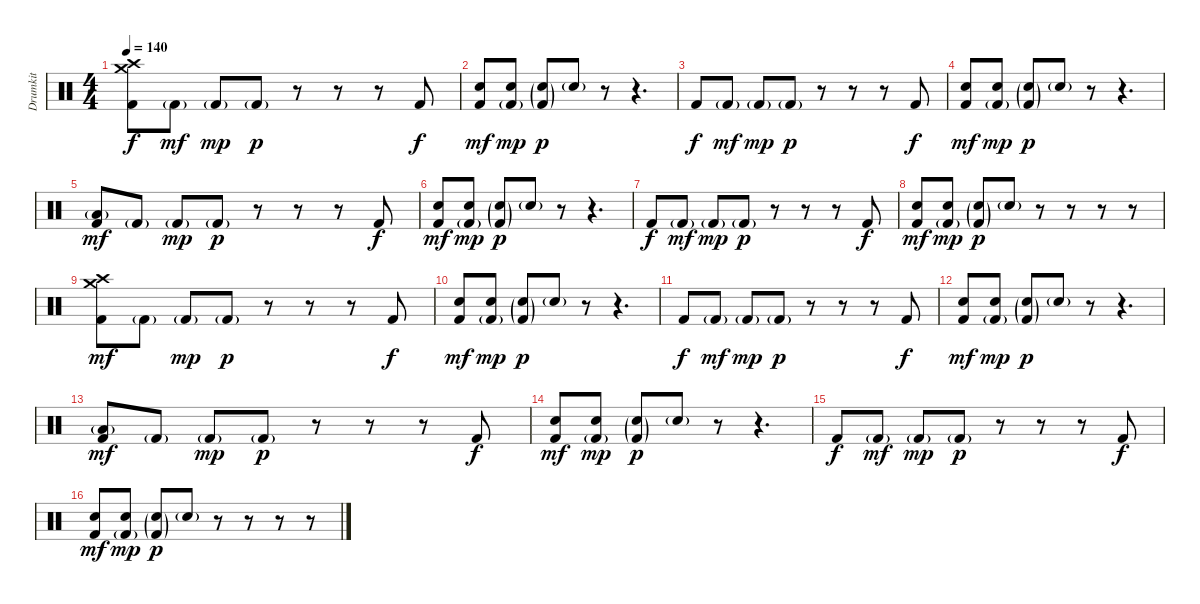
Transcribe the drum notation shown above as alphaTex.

\track ("Drumkit" "Drumkit") {instrument percussion}
\staff {score}
\articulation defaults
\ts (4 4)
\tempo 140
\clef neutral
\ks c
("Crash high (hit)" "Crash medium (hit)" "Kick (hit) 2").8{dy f} "Kick (hit) 2"{g}.8{dy mf} "Kick (hit) 2"{g}.8{dy mp} "Kick (hit) 2"{g}.8{dy p} r.8 r.8 r.8 "Kick (hit) 2".8{dy f} |
("Electric Snare (hit)" "Kick (hit) 2").8{dy mf} ("Electric Snare (hit)" "Kick (hit) 2"{g}).8{dy mp} ("Electric Snare (hit)"{g} "Kick (hit) 2"{g}).8{dy p} "Electric Snare (hit)"{g}.8 r.8 r.4{d} |
"Kick (hit) 2".8{dy f} "Kick (hit) 2"{g}.8{dy mf} "Kick (hit) 2"{g}.8{dy mp} "Kick (hit) 2"{g}.8{dy p} r.8 r.8 r.8 "Kick (hit) 2".8{dy f} |
("Electric Snare (hit)" "Kick (hit) 2").8{dy mf} ("Electric Snare (hit)" "Kick (hit) 2"{g}).8{dy mp} ("Electric Snare (hit)"{g} "Kick (hit) 2"{g}).8{dy p} "Electric Snare (hit)"{g}.8 r.8 r.4{d} |
("Low Floor Tom (hit)"{g} "Kick (hit) 2").8{dy mf} "Kick (hit) 2"{g}.8 "Kick (hit) 2"{g}.8{dy mp} "Kick (hit) 2"{g}.8{dy p} r.8 r.8 r.8 "Kick (hit) 2".8{dy f} |
("Electric Snare (hit)" "Kick (hit) 2").8{dy mf} ("Electric Snare (hit)" "Kick (hit) 2"{g}).8{dy mp} ("Electric Snare (hit)"{g} "Kick (hit) 2"{g}).8{dy p} "Electric Snare (hit)"{g}.8 r.8 r.4{d} |
"Kick (hit) 2".8{dy f} "Kick (hit) 2"{g}.8{dy mf} "Kick (hit) 2"{g}.8{dy mp} "Kick (hit) 2"{g}.8{dy p} r.8 r.8 r.8 "Kick (hit) 2".8{dy f} |
("Electric Snare (hit)" "Kick (hit) 2").8{dy mf} ("Electric Snare (hit)" "Kick (hit) 2"{g}).8{dy mp} ("Electric Snare (hit)"{g} "Kick (hit) 2"{g}).8{dy p} "Electric Snare (hit)"{g}.8 r.8 r.8 r.8 r.8 |
("Crash high (hit)" "Crash medium (hit)" "Kick (hit) 2").8{dy mf} "Kick (hit) 2"{g}.8 "Kick (hit) 2"{g}.8{dy mp} "Kick (hit) 2"{g}.8{dy p} r.8 r.8 r.8 "Kick (hit) 2".8{dy f} |
("Electric Snare (hit)" "Kick (hit) 2").8{dy mf} ("Electric Snare (hit)" "Kick (hit) 2"{g}).8{dy mp} ("Electric Snare (hit)"{g} "Kick (hit) 2"{g}).8{dy p} "Electric Snare (hit)"{g}.8 r.8 r.4{d} |
"Kick (hit) 2".8{dy f} "Kick (hit) 2"{g}.8{dy mf} "Kick (hit) 2"{g}.8{dy mp} "Kick (hit) 2"{g}.8{dy p} r.8 r.8 r.8 "Kick (hit) 2".8{dy f} |
("Electric Snare (hit)" "Kick (hit) 2").8{dy mf} ("Electric Snare (hit)" "Kick (hit) 2"{g}).8{dy mp} ("Electric Snare (hit)"{g} "Kick (hit) 2"{g}).8{dy p} "Electric Snare (hit)"{g}.8 r.8 r.4{d} |
("Low Floor Tom (hit)"{g} "Kick (hit) 2").8{dy mf} "Kick (hit) 2"{g}.8 "Kick (hit) 2"{g}.8{dy mp} "Kick (hit) 2"{g}.8{dy p} r.8 r.8 r.8 "Kick (hit) 2".8{dy f} |
("Electric Snare (hit)" "Kick (hit) 2").8{dy mf} ("Electric Snare (hit)" "Kick (hit) 2"{g}).8{dy mp} ("Electric Snare (hit)"{g} "Kick (hit) 2"{g}).8{dy p} "Electric Snare (hit)"{g}.8 r.8 r.4{d} |
"Kick (hit) 2".8{dy f} "Kick (hit) 2"{g}.8{dy mf} "Kick (hit) 2"{g}.8{dy mp} "Kick (hit) 2"{g}.8{dy p} r.8 r.8 r.8 "Kick (hit) 2".8{dy f} |
("Electric Snare (hit)" "Kick (hit) 2").8{dy mf} ("Electric Snare (hit)" "Kick (hit) 2"{g}).8{dy mp} ("Electric Snare (hit)"{g} "Kick (hit) 2"{g}).8{dy p} "Electric Snare (hit)"{g}.8 r.8 r.8 r.8 r.8
